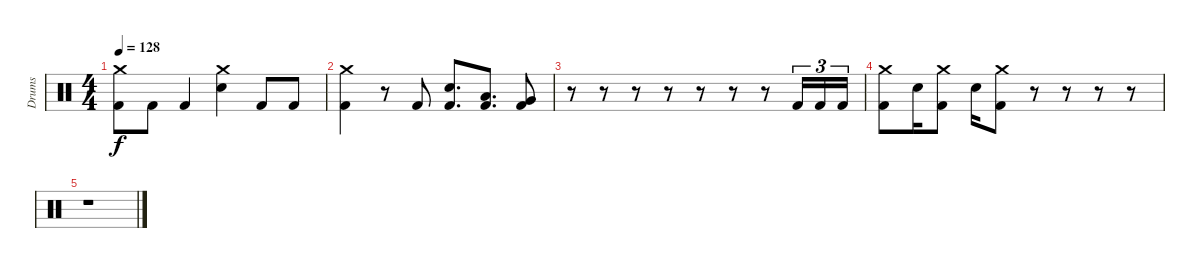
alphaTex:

\track ("Drums" "Drums") {instrument percussion}
\staff {score}
\articulation defaults
\ts (4 4)
\tempo 128
\clef neutral
\ks c
("Crash medium (hit)" "Kick (hit) 2").8{dy f} "Kick (hit) 2".8 "Kick (hit) 2".4 ("Crash medium (hit)" "Electric Snare (hit)").4 "Kick (hit) 2".8 "Kick (hit) 2".8 |
("Crash medium (hit)" "Kick (hit) 2").4 r.8 "Kick (hit) 2".8 ("Electric Snare (hit)" "Kick (hit) 2").8{d} ("Low Tom (hit)" "Kick (hit) 2").8{d} ("Very Low Tom (hit)" "Kick (hit) 2").8 |
r.8 r.8 r.8 r.8 r.8 r.8 r.8 "Kick (hit) 2".16{tu (3 2)} "Kick (hit) 2".16{tu (3 2)} "Kick (hit) 2".16{tu (3 2)} |
("Crash medium (hit)" "Kick (hit) 2").8 "Electric Snare (hit)".16 ("Crash medium (hit)" "Kick (hit) 2").8 "Electric Snare (hit)".16 ("Crash medium (hit)" "Kick (hit) 2").8 r.8 r.8 r.8 r.8 |
r.1
